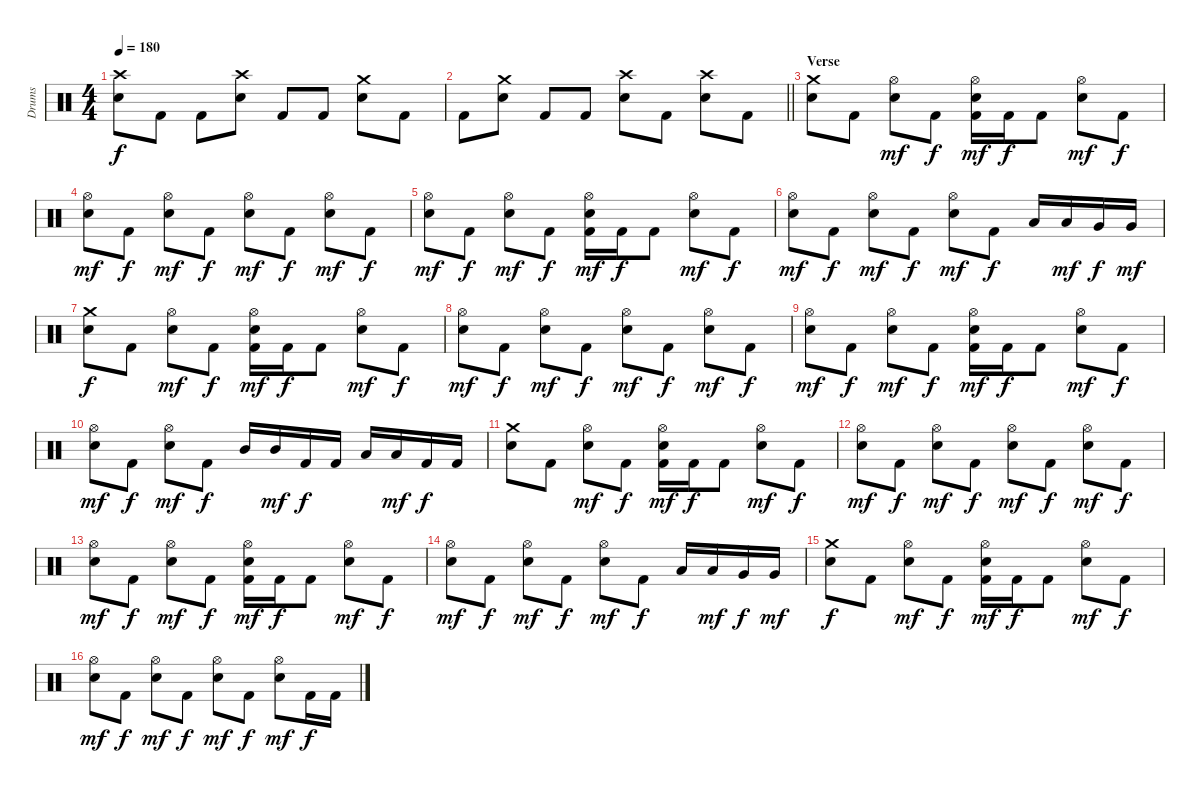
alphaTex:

\track ("Drums" "Drums") {instrument percussion}
\staff {score}
\articulation defaults
\ts (4 4)
\tempo 180
\clef neutral
\ks c
("Crash high (hit)" "Electric Snare (hit)").8{dy f} "Kick (hit) 2".8 "Kick (hit) 2".8 ("Crash high (hit)" "Electric Snare (hit)").8 "Kick (hit) 2".8 "Kick (hit) 2".8 ("Crash medium (hit)" "Electric Snare (hit)").8 "Kick (hit) 2".8 |
\barLineRight lightlight "Kick (hit) 2".8
("Crash medium (hit)" "Electric Snare (hit)").8 "Kick (hit) 2".8 "Kick (hit) 2".8 ("Crash high (hit)" "Electric Snare (hit)").8 "Kick (hit) 2".8 ("Crash high (hit)" "Electric Snare (hit)").8 "Kick (hit) 2".8 |
\section ("" "Verse")
("Crash medium (hit)" "Electric Snare (hit)").8 "Kick (hit) 2".8 ("Hi-Hat (open)" "Electric Snare (hit)").8{dy mf} "Kick (hit) 2".8{dy f} ("Kick (hit) 2" "Hi-Hat (open)" "Electric Snare (hit)").16{dy mf} "Kick (hit) 2".16{dy f} "Kick (hit) 2".8 ("Hi-Hat (open)" "Electric Snare (hit)").8{dy mf} "Kick (hit) 2".8{dy f} |
("Hi-Hat (open)" "Electric Snare (hit)").8{dy mf} "Kick (hit) 2".8{dy f} ("Hi-Hat (open)" "Electric Snare (hit)").8{dy mf} "Kick (hit) 2".8{dy f} ("Hi-Hat (open)" "Electric Snare (hit)").8{dy mf} "Kick (hit) 2".8{dy f} ("Hi-Hat (open)" "Electric Snare (hit)").8{dy mf} "Kick (hit) 2".8{dy f} |
("Hi-Hat (open)" "Electric Snare (hit)").8{dy mf} "Kick (hit) 2".8{dy f} ("Hi-Hat (open)" "Electric Snare (hit)").8{dy mf} "Kick (hit) 2".8{dy f} ("Kick (hit) 2" "Hi-Hat (open)" "Electric Snare (hit)").16{dy mf} "Kick (hit) 2".16{dy f} "Kick (hit) 2".8 ("Hi-Hat (open)" "Electric Snare (hit)").8{dy mf} "Kick (hit) 2".8{dy f} |
("Hi-Hat (open)" "Electric Snare (hit)").8{dy mf} "Kick (hit) 2".8{dy f} ("Hi-Hat (open)" "Electric Snare (hit)").8{dy mf} "Kick (hit) 2".8{dy f} ("Hi-Hat (open)" "Electric Snare (hit)").8{dy mf} "Kick (hit) 2".8{dy f} "Low Tom (hit)".16 "Low Tom (hit)".16{dy mf} "Very Low Tom (hit)".16{dy f} "Very Low Tom (hit)".16{dy mf} |
("Crash medium (hit)" "Electric Snare (hit)").8{dy f} "Kick (hit) 2".8 ("Hi-Hat (open)" "Electric Snare (hit)").8{dy mf} "Kick (hit) 2".8{dy f} ("Kick (hit) 2" "Hi-Hat (open)" "Electric Snare (hit)").16{dy mf} "Kick (hit) 2".16{dy f} "Kick (hit) 2".8 ("Hi-Hat (open)" "Electric Snare (hit)").8{dy mf} "Kick (hit) 2".8{dy f} |
("Hi-Hat (open)" "Electric Snare (hit)").8{dy mf} "Kick (hit) 2".8{dy f} ("Hi-Hat (open)" "Electric Snare (hit)").8{dy mf} "Kick (hit) 2".8{dy f} ("Hi-Hat (open)" "Electric Snare (hit)").8{dy mf} "Kick (hit) 2".8{dy f} ("Hi-Hat (open)" "Electric Snare (hit)").8{dy mf} "Kick (hit) 2".8{dy f} |
("Hi-Hat (open)" "Electric Snare (hit)").8{dy mf} "Kick (hit) 2".8{dy f} ("Hi-Hat (open)" "Electric Snare (hit)").8{dy mf} "Kick (hit) 2".8{dy f} ("Kick (hit) 2" "Hi-Hat (open)" "Electric Snare (hit)").16{dy mf} "Kick (hit) 2".16{dy f} "Kick (hit) 2".8 ("Hi-Hat (open)" "Electric Snare (hit)").8{dy mf} "Kick (hit) 2".8{dy f} |
("Hi-Hat (open)" "Electric Snare (hit)").8{dy mf} "Kick (hit) 2".8{dy f} ("Hi-Hat (open)" "Electric Snare (hit)").8{dy mf} "Kick (hit) 2".8{dy f} "Mid Tom (hit)".16 "Mid Tom (hit)".16{dy mf} "Kick (hit) 2".16{dy f} "Kick (hit) 2".16 "Low Tom (hit)".16 "Low Tom (hit)".16{dy mf} "Kick (hit) 2".16{dy f} "Kick (hit) 2".16 |
("Crash medium (hit)" "Electric Snare (hit)").8 "Kick (hit) 2".8 ("Hi-Hat (open)" "Electric Snare (hit)").8{dy mf} "Kick (hit) 2".8{dy f} ("Kick (hit) 2" "Hi-Hat (open)" "Electric Snare (hit)").16{dy mf} "Kick (hit) 2".16{dy f} "Kick (hit) 2".8 ("Hi-Hat (open)" "Electric Snare (hit)").8{dy mf} "Kick (hit) 2".8{dy f} |
("Hi-Hat (open)" "Electric Snare (hit)").8{dy mf} "Kick (hit) 2".8{dy f} ("Hi-Hat (open)" "Electric Snare (hit)").8{dy mf} "Kick (hit) 2".8{dy f} ("Hi-Hat (open)" "Electric Snare (hit)").8{dy mf} "Kick (hit) 2".8{dy f} ("Hi-Hat (open)" "Electric Snare (hit)").8{dy mf} "Kick (hit) 2".8{dy f} |
("Hi-Hat (open)" "Electric Snare (hit)").8{dy mf} "Kick (hit) 2".8{dy f} ("Hi-Hat (open)" "Electric Snare (hit)").8{dy mf} "Kick (hit) 2".8{dy f} ("Kick (hit) 2" "Hi-Hat (open)" "Electric Snare (hit)").16{dy mf} "Kick (hit) 2".16{dy f} "Kick (hit) 2".8 ("Hi-Hat (open)" "Electric Snare (hit)").8{dy mf} "Kick (hit) 2".8{dy f} |
("Hi-Hat (open)" "Electric Snare (hit)").8{dy mf} "Kick (hit) 2".8{dy f} ("Hi-Hat (open)" "Electric Snare (hit)").8{dy mf} "Kick (hit) 2".8{dy f} ("Hi-Hat (open)" "Electric Snare (hit)").8{dy mf} "Kick (hit) 2".8{dy f} "Low Tom (hit)".16 "Low Tom (hit)".16{dy mf} "Very Low Tom (hit)".16{dy f} "Very Low Tom (hit)".16{dy mf} |
("Crash medium (hit)" "Electric Snare (hit)").8{dy f} "Kick (hit) 2".8 ("Hi-Hat (open)" "Electric Snare (hit)").8{dy mf} "Kick (hit) 2".8{dy f} ("Kick (hit) 2" "Hi-Hat (open)" "Electric Snare (hit)").16{dy mf} "Kick (hit) 2".16{dy f} "Kick (hit) 2".8 ("Hi-Hat (open)" "Electric Snare (hit)").8{dy mf} "Kick (hit) 2".8{dy f} |
("Hi-Hat (open)" "Electric Snare (hit)").8{dy mf} "Kick (hit) 2".8{dy f} ("Hi-Hat (open)" "Electric Snare (hit)").8{dy mf} "Kick (hit) 2".8{dy f} ("Hi-Hat (open)" "Electric Snare (hit)").8{dy mf} "Kick (hit) 2".8{dy f} ("Hi-Hat (open)" "Electric Snare (hit)").8{dy mf} "Kick (hit) 2".16{dy f} "Kick (hit) 2".16
